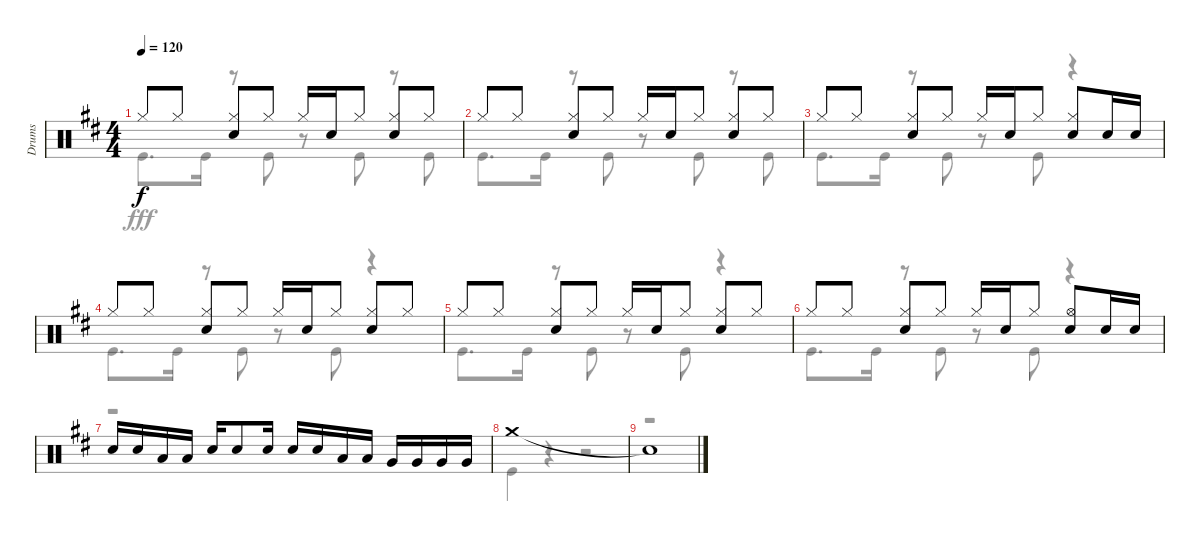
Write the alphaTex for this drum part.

\track ("Drums" "Drums") {instrument percussion}
\staff {score}
\articulation defaults
\voice
\ts (4 4)
\tempo 120
\clef neutral
\ks d "Hi-Hat (closed)".8{dy f} "Hi-Hat (closed)".8
("Hi-Hat (closed)" "Snare (hit) 2").8 "Hi-Hat (closed)".8 "Hi-Hat (closed)".16 "Snare (hit) 2".16 "Hi-Hat (closed)".8 ("Hi-Hat (closed)" "Snare (hit) 2").8 "Hi-Hat (closed)".8 |
"Hi-Hat (closed)".8 "Hi-Hat (closed)".8 ("Hi-Hat (closed)" "Snare (hit) 2").8 "Hi-Hat (closed)".8 "Hi-Hat (closed)".16 "Snare (hit) 2".16 "Hi-Hat (closed)".8 ("Hi-Hat (closed)" "Snare (hit) 2").8 "Hi-Hat (closed)".8 |
"Hi-Hat (closed)".8 "Hi-Hat (closed)".8 ("Hi-Hat (closed)" "Snare (hit) 2").8 "Hi-Hat (closed)".8 "Hi-Hat (closed)".16 "Snare (hit) 2".16 "Hi-Hat (closed)".8 ("Hi-Hat (closed)" "Snare (hit) 2").8 "Snare (hit) 2".16 "Snare (hit) 2".16 |
"Hi-Hat (closed)".8 "Hi-Hat (closed)".8 ("Hi-Hat (closed)" "Snare (hit) 2").8 "Hi-Hat (closed)".8 "Hi-Hat (closed)".16 "Snare (hit) 2".16 "Hi-Hat (closed)".8 ("Hi-Hat (closed)" "Snare (hit) 2").8 "Hi-Hat (closed)".8 |
"Hi-Hat (closed)".8 "Hi-Hat (closed)".8 ("Hi-Hat (closed)" "Snare (hit) 2").8 "Hi-Hat (closed)".8 "Hi-Hat (closed)".16 "Snare (hit) 2".16 "Hi-Hat (closed)".8 ("Hi-Hat (closed)" "Snare (hit) 2").8 "Hi-Hat (closed)".8 |
"Hi-Hat (closed)".8 "Hi-Hat (closed)".8 ("Hi-Hat (closed)" "Snare (hit) 2").8 "Hi-Hat (closed)".8 "Hi-Hat (closed)".16 "Snare (hit) 2".16 "Hi-Hat (closed)".8 ("Hi-Hat (open)" "Snare (hit) 2").8 "Snare (hit) 2".16 "Snare (hit) 2".16 |
"Snare (hit) 2".16 "Snare (hit) 2".16 "Low Tom (hit)".16 "Low Tom (hit)".16 "Snare (hit) 2".16 "Snare (hit) 2".8 "Snare (hit) 2".16 "Snare (hit) 2".16 "Snare (hit) 2".16 "Low Tom (hit)".16 "Low Tom (hit)".16 "Very Low Tom (hit)".16 "Very Low Tom (hit)".16 "Very Low Tom (hit)".16 "Very Low Tom (hit)".16 |
"Crash medium (hit)".1 |
"Snare (hit)"{t}.1
\voice
\clef neutral
\ottava regular
\simile none
\ks d "Kick (hit)".8{d dy fff} "Kick (hit)".16
r.8 "Kick (hit)".8 r.8 "Kick (hit)".8 r.8 "Kick (hit)".8 |
"Kick (hit)".8{d} "Kick (hit)".16 r.8 "Kick (hit)".8 r.8 "Kick (hit)".8 r.8 "Kick (hit)".8 |
"Kick (hit)".8{d} "Kick (hit)".16 r.8 "Kick (hit)".8 r.8 "Kick (hit)".8 r.4 |
"Kick (hit)".8{d} "Kick (hit)".16 r.8 "Kick (hit)".8 r.8 "Kick (hit)".8 r.4 |
"Kick (hit)".8{d} "Kick (hit)".16 r.8 "Kick (hit)".8 r.8 "Kick (hit)".8 r.4 |
"Kick (hit)".8{d} "Kick (hit)".16 r.8 "Kick (hit)".8 r.8 "Kick (hit)".8 r.4 |
r.1 |
"Kick (hit)".4 r.4 r.2 |
r.1
